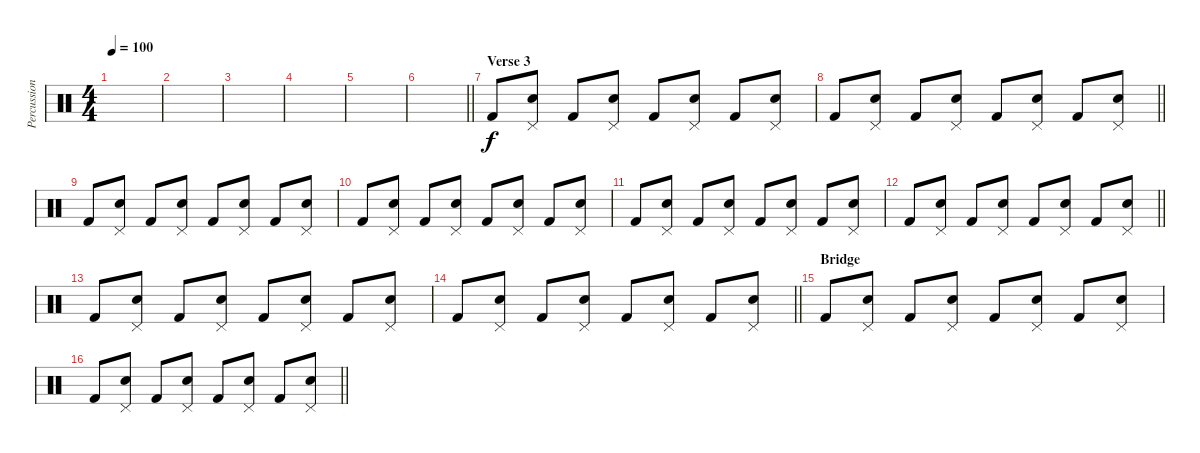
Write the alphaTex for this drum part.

\track ("Percussion" "Percussion") {instrument percussion}
\staff {score}
\articulation defaults
\ts (4 4)
\tempo 100
\clef neutral
\ks c
|
|
|
|
|
\barLineRight lightlight
|
\section ("" "Verse 3")
"Kick (hit) 2".8 ("Pedal Hi-Hat (hit)" "Snare (hit) 2").8 "Kick (hit) 2".8 ("Pedal Hi-Hat (hit)" "Snare (hit) 2").8 "Kick (hit) 2".8 ("Pedal Hi-Hat (hit)" "Snare (hit) 2").8 "Kick (hit) 2".8 ("Pedal Hi-Hat (hit)" "Snare (hit) 2").8 |
\barLineRight lightlight "Kick (hit) 2".8
("Pedal Hi-Hat (hit)" "Snare (hit) 2").8 "Kick (hit) 2".8 ("Pedal Hi-Hat (hit)" "Snare (hit) 2").8 "Kick (hit) 2".8 ("Pedal Hi-Hat (hit)" "Snare (hit) 2").8 "Kick (hit) 2".8 ("Pedal Hi-Hat (hit)" "Snare (hit) 2").8 |
"Kick (hit) 2".8 ("Pedal Hi-Hat (hit)" "Snare (hit) 2").8 "Kick (hit) 2".8 ("Pedal Hi-Hat (hit)" "Snare (hit) 2").8 "Kick (hit) 2".8 ("Pedal Hi-Hat (hit)" "Snare (hit) 2").8 "Kick (hit) 2".8 ("Pedal Hi-Hat (hit)" "Snare (hit) 2").8 |
"Kick (hit) 2".8 ("Pedal Hi-Hat (hit)" "Snare (hit) 2").8 "Kick (hit) 2".8 ("Pedal Hi-Hat (hit)" "Snare (hit) 2").8 "Kick (hit) 2".8 ("Pedal Hi-Hat (hit)" "Snare (hit) 2").8 "Kick (hit) 2".8 ("Pedal Hi-Hat (hit)" "Snare (hit) 2").8 |
"Kick (hit) 2".8 ("Pedal Hi-Hat (hit)" "Snare (hit) 2").8 "Kick (hit) 2".8 ("Pedal Hi-Hat (hit)" "Snare (hit) 2").8 "Kick (hit) 2".8 ("Pedal Hi-Hat (hit)" "Snare (hit) 2").8 "Kick (hit) 2".8 ("Pedal Hi-Hat (hit)" "Snare (hit) 2").8 |
\barLineRight lightlight "Kick (hit) 2".8
("Pedal Hi-Hat (hit)" "Snare (hit) 2").8 "Kick (hit) 2".8 ("Pedal Hi-Hat (hit)" "Snare (hit) 2").8 "Kick (hit) 2".8 ("Pedal Hi-Hat (hit)" "Snare (hit) 2").8 "Kick (hit) 2".8 ("Pedal Hi-Hat (hit)" "Snare (hit) 2").8 |
"Kick (hit) 2".8 ("Pedal Hi-Hat (hit)" "Snare (hit) 2").8 "Kick (hit) 2".8 ("Pedal Hi-Hat (hit)" "Snare (hit) 2").8 "Kick (hit) 2".8 ("Pedal Hi-Hat (hit)" "Snare (hit) 2").8 "Kick (hit) 2".8 ("Pedal Hi-Hat (hit)" "Snare (hit) 2").8 |
\barLineRight lightlight "Kick (hit) 2".8
("Pedal Hi-Hat (hit)" "Snare (hit) 2").8 "Kick (hit) 2".8 ("Pedal Hi-Hat (hit)" "Snare (hit) 2").8 "Kick (hit) 2".8 ("Pedal Hi-Hat (hit)" "Snare (hit) 2").8 "Kick (hit) 2".8 ("Pedal Hi-Hat (hit)" "Snare (hit) 2").8 |
\section ("" "Bridge")
"Kick (hit) 2".8 ("Pedal Hi-Hat (hit)" "Snare (hit) 2").8 "Kick (hit) 2".8 ("Pedal Hi-Hat (hit)" "Snare (hit) 2").8 "Kick (hit) 2".8 ("Pedal Hi-Hat (hit)" "Snare (hit) 2").8 "Kick (hit) 2".8 ("Pedal Hi-Hat (hit)" "Snare (hit) 2").8 |
\barLineRight lightlight "Kick (hit) 2".8
("Pedal Hi-Hat (hit)" "Snare (hit) 2").8 "Kick (hit) 2".8 ("Pedal Hi-Hat (hit)" "Snare (hit) 2").8 "Kick (hit) 2".8 ("Pedal Hi-Hat (hit)" "Snare (hit) 2").8 "Kick (hit) 2".8 ("Pedal Hi-Hat (hit)" "Snare (hit) 2").8
